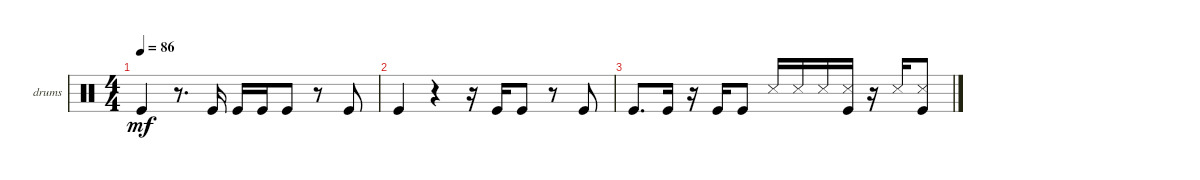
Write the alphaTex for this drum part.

\defaultSystemsLayout 4
\bracketExtendMode groupsimilarinstruments
\firstSystemTrackNameOrientation horizontal
\otherSystemsTrackNameOrientation horizontal
\track ("drums" "drums") {instrument percussion}
\staff {score}
\articulation defaults
\ts (4 4)
\tempo 86
\clef neutral
\ks c "Kick (hit)".4{dy mf}
r.8{d} "Kick (hit)".16 "Kick (hit)".16 "Kick (hit)".16 "Kick (hit)".8 r.8 "Kick (hit)".8 |
"Kick (hit)".4 r.4 r.16 "Kick (hit)".16 "Kick (hit)".8 r.8 "Kick (hit)".8 |
"Kick (hit)".8{d} "Kick (hit)".16 r.16 "Kick (hit)".16 "Kick (hit)".8 "Snare (side stick) 3".16 "Snare (side stick) 3".16 "Snare (side stick) 3".16 ("Kick (hit)" "Snare (side stick) 3").16 r.16 "Snare (side stick) 3".16 ("Kick (hit)" "Snare (side stick) 3").8
